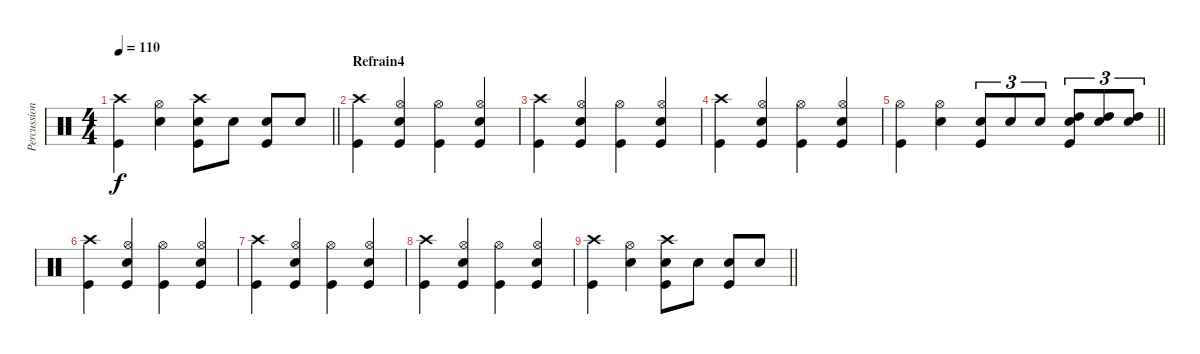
\track ("Percussions" "Percussion") {instrument percussion}
\staff {score}
\articulation defaults
\ts (4 4)
\tempo 110
\clef neutral
\barLineRight lightlight
\ks c
("Crash high (hit)" "Kick (hit)").4{dy f} ("Hi-Hat (open)" "Snare (hit) 2").4 ("Crash high (hit)" "Snare (hit) 2" "Kick (hit)").8 "Snare (hit) 2".8 ("Snare (hit) 2" "Kick (hit)").8 "Snare (hit) 2".8 |
\section ("" "Refrain4")
("Crash high (hit)" "Kick (hit)").4 ("Hi-Hat (open)" "Snare (hit) 2" "Kick (hit)").4 ("Hi-Hat (open)" "Kick (hit)").4 ("Hi-Hat (open)" "Snare (hit) 2" "Kick (hit)").4 |
("Crash high (hit)" "Kick (hit)").4 ("Hi-Hat (open)" "Snare (hit) 2" "Kick (hit)").4 ("Hi-Hat (open)" "Kick (hit)").4 ("Hi-Hat (open)" "Snare (hit) 2" "Kick (hit)").4 |
("Crash high (hit)" "Kick (hit)").4 ("Hi-Hat (open)" "Snare (hit) 2" "Kick (hit)").4 ("Hi-Hat (open)" "Kick (hit)").4 ("Hi-Hat (open)" "Snare (hit) 2" "Kick (hit)").4 |
\barLineRight lightlight
("Hi-Hat (open)" "Kick (hit)").4 ("Hi-Hat (open)" "Snare (hit) 2").4 ("Snare (hit) 2" "Kick (hit)").8{tu (3 2)} "Snare (hit) 2".8{tu (3 2)} "Snare (hit) 2".8{tu (3 2)} ("Snare (hit) 2" "High Tom (hit)" "Kick (hit)").8{tu (3 2)} ("Snare (hit) 2" "High Tom (hit)").8{tu (3 2)} ("Snare (hit) 2" "High Tom (hit)").8{tu (3 2)} |
("Crash high (hit)" "Kick (hit)").4 ("Hi-Hat (open)" "Snare (hit) 2" "Kick (hit)").4 ("Hi-Hat (open)" "Kick (hit)").4 ("Hi-Hat (open)" "Snare (hit) 2" "Kick (hit)").4 |
("Crash high (hit)" "Kick (hit)").4 ("Hi-Hat (open)" "Snare (hit) 2" "Kick (hit)").4 ("Hi-Hat (open)" "Kick (hit)").4 ("Hi-Hat (open)" "Snare (hit) 2" "Kick (hit)").4 |
("Crash high (hit)" "Kick (hit)").4 ("Hi-Hat (open)" "Snare (hit) 2" "Kick (hit)").4 ("Hi-Hat (open)" "Kick (hit)").4 ("Hi-Hat (open)" "Snare (hit) 2" "Kick (hit)").4 |
\barLineRight lightlight
("Crash high (hit)" "Kick (hit)").4 ("Hi-Hat (open)" "Snare (hit) 2").4 ("Crash high (hit)" "Snare (hit) 2" "Kick (hit)").8 "Snare (hit) 2".8 ("Snare (hit) 2" "Kick (hit)").8 "Snare (hit) 2".8
